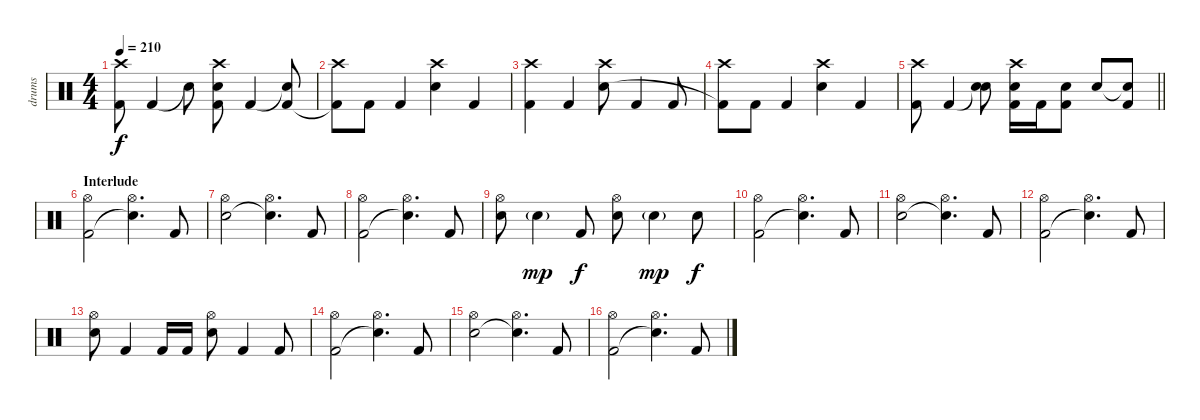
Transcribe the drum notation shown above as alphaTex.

\track ("drums" "drums") {solo instrument percussion}
\staff {score}
\articulation defaults
\ts (4 4)
\tempo 210
\clef neutral
\ks c
("Crash high (hit)" "Kick (hit) 2").8{dy f} "Kick (hit) 2".4 "Snare (hit)"{t}.8 ("Crash high (hit)" "Electric Snare (hit)" "Kick (hit) 2").8 "Kick (hit) 2".4 ("Snare (hit)"{t} "Kick (hit) 2").8 |
("Crash high (hit)" "Kick (hit) 2"{t}).8 "Kick (hit) 2".8 "Kick (hit) 2".4 ("Crash high (hit)" "Electric Snare (hit)").4 "Kick (hit) 2".4 |
("Crash high (hit)" "Kick (hit) 2").4 "Kick (hit) 2".4 ("Crash high (hit)" "Electric Snare (hit)").8 "Kick (hit) 2".4 "Kick (hit) 2".8 |
("Crash high (hit)" "Kick (hit) 2"{t}).8 "Kick (hit) 2".8 "Kick (hit) 2".4 ("Crash high (hit)" "Electric Snare (hit)").4 "Kick (hit) 2".4 |
\barLineRight lightlight
("Crash high (hit)" "Kick (hit) 2").8 "Kick (hit) 2".4 ("Snare (hit)"{t} "Electric Snare (hit)").8 ("Crash high (hit)" "Electric Snare (hit)" "Kick (hit) 2").16 "Kick (hit) 2".16 ("Electric Snare (hit)" "Kick (hit) 2").8 "Electric Snare (hit)".8 ("Snare (hit)"{t} "Kick (hit) 2").8 |
\section ("" "Interlude")
("Hi-Hat (open)" "Kick (hit) 2").2 ("Hi-Hat (open)" "Snare (hit)"{t}).4{d} "Kick (hit) 2".8 |
("Hi-Hat (open)" "Electric Snare (hit)").2 ("Hi-Hat (open)" "Snare (hit)"{t}).4{d} "Kick (hit) 2".8 |
("Hi-Hat (open)" "Kick (hit) 2").2 ("Hi-Hat (open)" "Snare (hit)"{t}).4{d} "Kick (hit) 2".8 |
("Hi-Hat (open)" "Electric Snare (hit)").8 "Electric Snare (hit)"{g}.4{dy mp} "Kick (hit) 2".8{dy f} ("Hi-Hat (open)" "Electric Snare (hit)").8 "Electric Snare (hit)"{g}.4{dy mp} "Electric Snare (hit)".8{dy f} |
("Hi-Hat (open)" "Kick (hit) 2").2 ("Hi-Hat (open)" "Snare (hit)"{t}).4{d} "Kick (hit) 2".8 |
("Hi-Hat (open)" "Electric Snare (hit)").2 ("Hi-Hat (open)" "Snare (hit)"{t}).4{d} "Kick (hit) 2".8 |
("Hi-Hat (open)" "Kick (hit) 2").2 ("Hi-Hat (open)" "Snare (hit)"{t}).4{d} "Kick (hit) 2".8 |
("Hi-Hat (open)" "Electric Snare (hit)").8 "Kick (hit) 2".4 "Kick (hit) 2".16 "Kick (hit) 2".16 ("Hi-Hat (open)" "Electric Snare (hit)").8 "Kick (hit) 2".4 "Kick (hit) 2".8 |
("Hi-Hat (open)" "Kick (hit) 2").2 ("Hi-Hat (open)" "Snare (hit)"{t}).4{d} "Kick (hit) 2".8 |
("Hi-Hat (open)" "Electric Snare (hit)").2 ("Hi-Hat (open)" "Snare (hit)"{t}).4{d} "Kick (hit) 2".8 |
("Hi-Hat (open)" "Kick (hit) 2").2 ("Hi-Hat (open)" "Snare (hit)"{t}).4{d} "Kick (hit) 2".8
